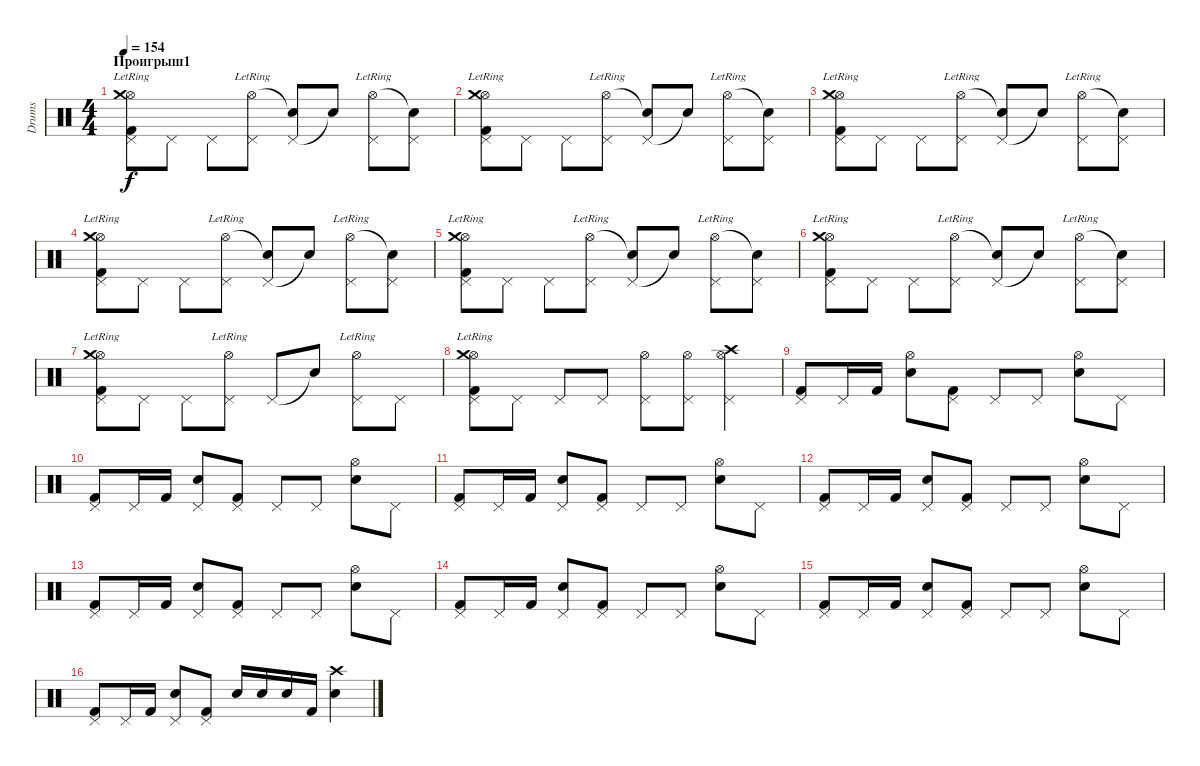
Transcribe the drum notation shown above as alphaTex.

\track ("Drums" "Drums") {instrument percussion}
\staff {score}
\articulation defaults
\ts (4 4)
\section ("" "Проигрыш1")
\tempo 154
\clef neutral
\ks c
("Hi-Hat (open)"{lr} "Crash medium (hit)"{lr} "Pedal Hi-Hat (hit)" "Kick (hit) 2"{lr}).8{dy f} "Pedal Hi-Hat (hit)".8 "Pedal Hi-Hat (hit)".8 ("Pedal Hi-Hat (hit)" "Hi-Hat (open)"{lr}).8 ("Pedal Hi-Hat (hit)" "Snare (hit)"{t}).8 "Snare (hit)"{t}.8 ("Pedal Hi-Hat (hit)" "Hi-Hat (open)"{lr}).8 ("Pedal Hi-Hat (hit)" "Snare (hit)"{t}).8 |
("Hi-Hat (open)"{lr} "Crash medium (hit)"{lr} "Pedal Hi-Hat (hit)" "Kick (hit) 2").8 "Pedal Hi-Hat (hit)".8 "Pedal Hi-Hat (hit)".8 ("Pedal Hi-Hat (hit)" "Hi-Hat (open)"{lr}).8 ("Pedal Hi-Hat (hit)" "Snare (hit)"{t}).8 "Snare (hit)"{t}.8 ("Pedal Hi-Hat (hit)" "Hi-Hat (open)"{lr}).8 ("Pedal Hi-Hat (hit)" "Snare (hit)"{t}).8 |
("Hi-Hat (open)"{lr} "Crash medium (hit)"{lr} "Pedal Hi-Hat (hit)" "Kick (hit) 2").8 "Pedal Hi-Hat (hit)".8 "Pedal Hi-Hat (hit)".8 ("Pedal Hi-Hat (hit)" "Hi-Hat (open)"{lr}).8 ("Pedal Hi-Hat (hit)" "Snare (hit)"{t}).8 "Snare (hit)"{t}.8 ("Pedal Hi-Hat (hit)" "Hi-Hat (open)"{lr}).8 ("Pedal Hi-Hat (hit)" "Snare (hit)"{t}).8 |
("Hi-Hat (open)"{lr} "Crash medium (hit)"{lr} "Pedal Hi-Hat (hit)" "Kick (hit) 2").8 "Pedal Hi-Hat (hit)".8 "Pedal Hi-Hat (hit)".8 ("Pedal Hi-Hat (hit)" "Hi-Hat (open)"{lr}).8 ("Pedal Hi-Hat (hit)" "Snare (hit)"{t}).8 "Snare (hit)"{t}.8 ("Pedal Hi-Hat (hit)" "Hi-Hat (open)"{lr}).8 ("Pedal Hi-Hat (hit)" "Snare (hit)"{t}).8 |
("Hi-Hat (open)"{lr} "Crash medium (hit)"{lr} "Pedal Hi-Hat (hit)" "Kick (hit) 2").8 "Pedal Hi-Hat (hit)".8 "Pedal Hi-Hat (hit)".8 ("Pedal Hi-Hat (hit)" "Hi-Hat (open)"{lr}).8 ("Pedal Hi-Hat (hit)" "Snare (hit)"{t}).8 "Snare (hit)"{t}.8 ("Pedal Hi-Hat (hit)"{lr} "Hi-Hat (open)"{lr}).8 ("Pedal Hi-Hat (hit)" "Snare (hit)"{t}).8 |
("Hi-Hat (open)"{lr} "Crash medium (hit)"{lr} "Pedal Hi-Hat (hit)" "Kick (hit) 2").8 "Pedal Hi-Hat (hit)".8 "Pedal Hi-Hat (hit)".8 ("Pedal Hi-Hat (hit)" "Hi-Hat (open)"{lr}).8 ("Pedal Hi-Hat (hit)" "Snare (hit)"{t}).8 "Snare (hit)"{t}.8 ("Pedal Hi-Hat (hit)" "Hi-Hat (open)"{lr}).8 ("Pedal Hi-Hat (hit)" "Snare (hit)"{t}).8 |
("Hi-Hat (open)"{lr} "Crash medium (hit)"{lr} "Pedal Hi-Hat (hit)" "Kick (hit) 2").8 "Pedal Hi-Hat (hit)".8 "Pedal Hi-Hat (hit)".8 ("Pedal Hi-Hat (hit)"{lr} "Hi-Hat (open)").8 "Pedal Hi-Hat (hit)".8 "Snare (hit)"{t}.8 ("Pedal Hi-Hat (hit)" "Hi-Hat (open)"{lr}).8 "Pedal Hi-Hat (hit)".8 |
("Hi-Hat (open)"{lr} "Crash medium (hit)"{lr} "Pedal Hi-Hat (hit)" "Kick (hit) 2").8 "Pedal Hi-Hat (hit)".8 "Pedal Hi-Hat (hit)".8 "Pedal Hi-Hat (hit)".8 ("Pedal Hi-Hat (hit)" "Hi-Hat (open)").8 ("Pedal Hi-Hat (hit)" "Hi-Hat (open)").8 ("Crash high (hit)" "Pedal Hi-Hat (hit)" "Hi-Hat (open)").4 |
("Pedal Hi-Hat (hit)" "Kick (hit) 2").8 "Pedal Hi-Hat (hit)".16 "Kick (hit) 2".16 ("Hi-Hat (open)" "Electric Snare (hit)").8 ("Pedal Hi-Hat (hit)" "Kick (hit) 2").8 "Pedal Hi-Hat (hit)".8 "Pedal Hi-Hat (hit)".8 ("Hi-Hat (open)" "Electric Snare (hit)").8 "Pedal Hi-Hat (hit)".8 |
("Pedal Hi-Hat (hit)" "Kick (hit) 2").8 "Pedal Hi-Hat (hit)".16 "Kick (hit) 2".16 ("Pedal Hi-Hat (hit)" "Electric Snare (hit)").8 ("Pedal Hi-Hat (hit)" "Kick (hit) 2").8 "Pedal Hi-Hat (hit)".8 "Pedal Hi-Hat (hit)".8 ("Hi-Hat (open)" "Electric Snare (hit)").8 "Pedal Hi-Hat (hit)".8 |
("Pedal Hi-Hat (hit)" "Kick (hit) 2").8 "Pedal Hi-Hat (hit)".16 "Kick (hit) 2".16 ("Pedal Hi-Hat (hit)" "Electric Snare (hit)").8 ("Pedal Hi-Hat (hit)" "Kick (hit) 2").8 "Pedal Hi-Hat (hit)".8 "Pedal Hi-Hat (hit)".8 ("Hi-Hat (open)" "Electric Snare (hit)").8 "Pedal Hi-Hat (hit)".8 |
("Pedal Hi-Hat (hit)" "Kick (hit) 2").8 "Pedal Hi-Hat (hit)".16 "Kick (hit) 2".16 ("Pedal Hi-Hat (hit)" "Electric Snare (hit)").8 ("Pedal Hi-Hat (hit)" "Kick (hit) 2").8 "Pedal Hi-Hat (hit)".8 "Pedal Hi-Hat (hit)".8 ("Hi-Hat (open)" "Electric Snare (hit)").8 "Pedal Hi-Hat (hit)".8 |
("Pedal Hi-Hat (hit)" "Kick (hit) 2").8 "Pedal Hi-Hat (hit)".16 "Kick (hit) 2".16 ("Pedal Hi-Hat (hit)" "Electric Snare (hit)").8 ("Pedal Hi-Hat (hit)" "Kick (hit) 2").8 "Pedal Hi-Hat (hit)".8 "Pedal Hi-Hat (hit)".8 ("Hi-Hat (open)" "Electric Snare (hit)").8 "Pedal Hi-Hat (hit)".8 |
("Pedal Hi-Hat (hit)" "Kick (hit) 2").8 "Pedal Hi-Hat (hit)".16 "Kick (hit) 2".16 ("Pedal Hi-Hat (hit)" "Electric Snare (hit)").8 ("Pedal Hi-Hat (hit)" "Kick (hit) 2").8 "Pedal Hi-Hat (hit)".8 "Pedal Hi-Hat (hit)".8 ("Hi-Hat (open)" "Electric Snare (hit)").8 "Pedal Hi-Hat (hit)".8 |
("Pedal Hi-Hat (hit)" "Kick (hit) 2").8 "Pedal Hi-Hat (hit)".16 "Kick (hit) 2".16 ("Pedal Hi-Hat (hit)" "Electric Snare (hit)").8 ("Pedal Hi-Hat (hit)" "Kick (hit) 2").8 "Pedal Hi-Hat (hit)".8 "Pedal Hi-Hat (hit)".8 ("Hi-Hat (open)" "Electric Snare (hit)").8 "Pedal Hi-Hat (hit)".8 |
("Pedal Hi-Hat (hit)" "Kick (hit) 2").8 "Pedal Hi-Hat (hit)".16 "Kick (hit) 2".16 ("Pedal Hi-Hat (hit)" "Electric Snare (hit)").8 ("Pedal Hi-Hat (hit)" "Kick (hit) 2").8 "Electric Snare (hit)".16 "Electric Snare (hit)".16 "Electric Snare (hit)".16 "Kick (hit) 2".16 ("Crash high (hit)" "Electric Snare (hit)").4
